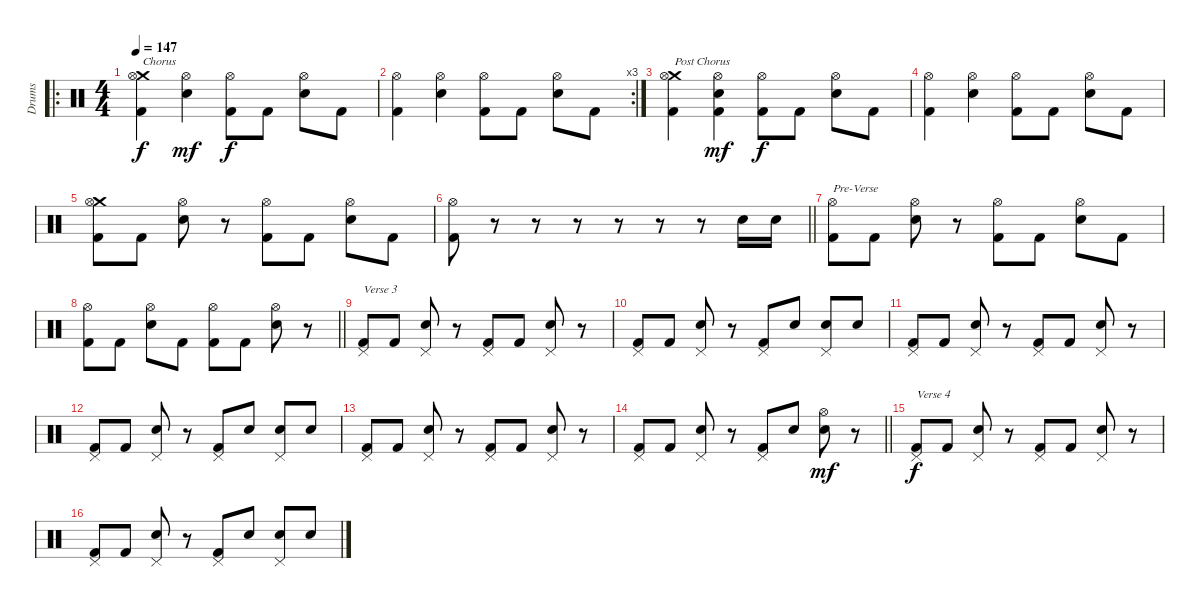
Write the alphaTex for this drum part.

\track ("Drums" "Drums") {instrument percussion}
\staff {score}
\articulation defaults
\ro
\ts (4 4)
\tempo 147
\clef neutral
\ks c
("Crash medium (hit)" "Hi-Hat (open)" "Kick (hit) 2").4{txt "Chorus" dy f} ("Hi-Hat (open)" "Electric Snare (hit)").4{dy mf} ("Hi-Hat (open)" "Kick (hit) 2").8{dy f} "Kick (hit) 2".8 ("Hi-Hat (open)" "Electric Snare (hit)").8 "Kick (hit) 2".8 |
\rc 3
("Hi-Hat (open)" "Kick (hit) 2").4 ("Hi-Hat (open)" "Electric Snare (hit)").4 ("Hi-Hat (open)" "Kick (hit) 2").8 "Kick (hit) 2".8 ("Hi-Hat (open)" "Electric Snare (hit)").8 "Kick (hit) 2".8 |
("Crash medium (hit)" "Hi-Hat (open)" "Kick (hit) 2").4{txt "Post Chorus"} ("Hi-Hat (open)" "Electric Snare (hit)" "Kick (hit) 2").4{dy mf} ("Hi-Hat (open)" "Kick (hit) 2").8{dy f} "Kick (hit) 2".8 ("Hi-Hat (open)" "Electric Snare (hit)").8 "Kick (hit) 2".8 |
("Hi-Hat (open)" "Kick (hit) 2").4 ("Hi-Hat (open)" "Electric Snare (hit)").4 ("Hi-Hat (open)" "Kick (hit) 2").8 "Kick (hit) 2".8 ("Hi-Hat (open)" "Electric Snare (hit)").8 "Kick (hit) 2".8 |
("Crash medium (hit)" "Hi-Hat (open)" "Kick (hit) 2").8 "Kick (hit) 2".8 ("Hi-Hat (open)" "Electric Snare (hit)").8 r.8 ("Hi-Hat (open)" "Kick (hit) 2").8 "Kick (hit) 2".8 ("Hi-Hat (open)" "Electric Snare (hit)").8 "Kick (hit) 2".8 |
\barLineRight lightlight
("Hi-Hat (open)" "Kick (hit) 2").8 r.8 r.8 r.8 r.8 r.8 r.8 "Electric Snare (hit)".16 "Electric Snare (hit)".16 |
("Hi-Hat (open)" "Kick (hit) 2").8{txt "Pre-Verse"} "Kick (hit) 2".8 ("Hi-Hat (open)" "Electric Snare (hit)").8 r.8 ("Hi-Hat (open)" "Kick (hit) 2").8 "Kick (hit) 2".8 ("Hi-Hat (open)" "Electric Snare (hit)").8 "Kick (hit) 2".8 |
\barLineRight lightlight
("Hi-Hat (open)" "Kick (hit) 2").8 "Kick (hit) 2".8 ("Hi-Hat (open)" "Electric Snare (hit)").8 "Kick (hit) 2".8 ("Hi-Hat (open)" "Kick (hit) 2").8 "Kick (hit) 2".8 ("Hi-Hat (open)" "Electric Snare (hit)").8 r.8 |
("Pedal Hi-Hat (hit)" "Kick (hit) 2").8{txt "Verse 3"} "Kick (hit) 2".8 ("Pedal Hi-Hat (hit)" "Electric Snare (hit)").8 r.8 ("Pedal Hi-Hat (hit)" "Kick (hit) 2").8 "Kick (hit) 2".8 ("Pedal Hi-Hat (hit)" "Electric Snare (hit)").8 r.8 |
("Pedal Hi-Hat (hit)" "Kick (hit) 2").8 "Kick (hit) 2".8 ("Pedal Hi-Hat (hit)" "Electric Snare (hit)").8 r.8 ("Pedal Hi-Hat (hit)" "Kick (hit) 2").8 "Electric Snare (hit)".8 ("Pedal Hi-Hat (hit)" "Electric Snare (hit)").8 "Electric Snare (hit)".8 |
("Pedal Hi-Hat (hit)" "Kick (hit) 2").8 "Kick (hit) 2".8 ("Pedal Hi-Hat (hit)" "Electric Snare (hit)").8 r.8 ("Pedal Hi-Hat (hit)" "Kick (hit) 2").8 "Kick (hit) 2".8 ("Pedal Hi-Hat (hit)" "Electric Snare (hit)").8 r.8 |
("Pedal Hi-Hat (hit)" "Kick (hit) 2").8 "Kick (hit) 2".8 ("Pedal Hi-Hat (hit)" "Electric Snare (hit)").8 r.8 ("Pedal Hi-Hat (hit)" "Kick (hit) 2").8 "Electric Snare (hit)".8 ("Pedal Hi-Hat (hit)" "Electric Snare (hit)").8 "Electric Snare (hit)".8 |
("Pedal Hi-Hat (hit)" "Kick (hit) 2").8 "Kick (hit) 2".8 ("Pedal Hi-Hat (hit)" "Electric Snare (hit)").8 r.8 ("Pedal Hi-Hat (hit)" "Kick (hit) 2").8 "Kick (hit) 2".8 ("Pedal Hi-Hat (hit)" "Electric Snare (hit)").8 r.8 |
\barLineRight lightlight
("Pedal Hi-Hat (hit)" "Kick (hit) 2").8 "Kick (hit) 2".8 ("Pedal Hi-Hat (hit)" "Electric Snare (hit)").8 r.8 ("Pedal Hi-Hat (hit)" "Kick (hit) 2").8 "Electric Snare (hit)".8 ("Hi-Hat (open)" "Electric Snare (hit)").8{dy mf} r.8 |
("Pedal Hi-Hat (hit)" "Kick (hit) 2").8{txt "Verse 4" dy f} "Kick (hit) 2".8 ("Pedal Hi-Hat (hit)" "Electric Snare (hit)").8 r.8 ("Pedal Hi-Hat (hit)" "Kick (hit) 2").8 "Kick (hit) 2".8 ("Pedal Hi-Hat (hit)" "Electric Snare (hit)").8 r.8 |
("Pedal Hi-Hat (hit)" "Kick (hit) 2").8 "Kick (hit) 2".8 ("Pedal Hi-Hat (hit)" "Electric Snare (hit)").8 r.8 ("Pedal Hi-Hat (hit)" "Kick (hit) 2").8 "Electric Snare (hit)".8 ("Pedal Hi-Hat (hit)" "Electric Snare (hit)").8 "Electric Snare (hit)".8
